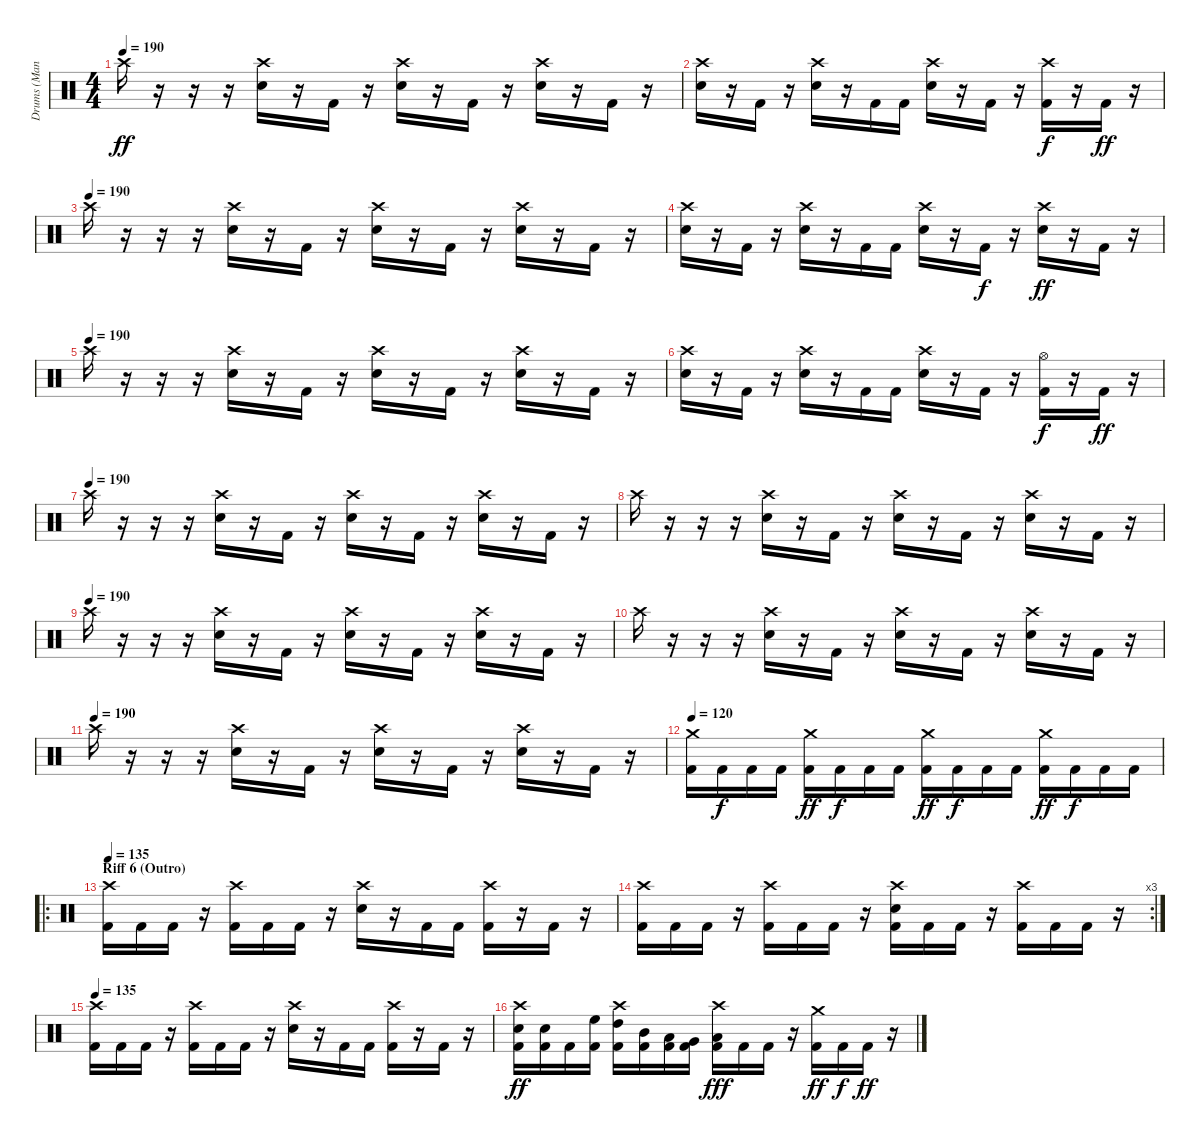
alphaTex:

\track ("Drums (Mancino)" "Drums (Man") {instrument percussion}
\staff {score}
\articulation defaults
\ts (4 4)
\tempo 190
\clef neutral
\ks c "Crash high (hit)".16{dy ff}
r.16 r.16 r.16 ("Crash high (hit)" "Electric Snare (hit)").16 r.16 "Kick (hit) 2".16 r.16 ("Crash high (hit)" "Electric Snare (hit)").16 r.16 "Kick (hit) 2".16 r.16 ("Crash high (hit)" "Electric Snare (hit)").16 r.16 "Kick (hit) 2".16 r.16 |
("Crash high (hit)" "Electric Snare (hit)").16 r.16 "Kick (hit) 2".16 r.16 ("Crash high (hit)" "Electric Snare (hit)").16 r.16 "Kick (hit) 2".16 "Kick (hit) 2".16 ("Crash high (hit)" "Electric Snare (hit)").16 r.16 "Kick (hit) 2".16 r.16 ("Crash high (hit)" "Kick (hit) 2").16{dy f} r.16 "Kick (hit) 2".16{dy ff} r.16 |
\tempo (190)
"Crash high (hit)".16 r.16 r.16 r.16 ("Crash high (hit)" "Electric Snare (hit)").16 r.16 "Kick (hit) 2".16 r.16 ("Crash high (hit)" "Electric Snare (hit)").16 r.16 "Kick (hit) 2".16 r.16 ("Crash high (hit)" "Electric Snare (hit)").16 r.16 "Kick (hit) 2".16 r.16 |
("Crash high (hit)" "Electric Snare (hit)").16 r.16 "Kick (hit) 2".16 r.16 ("Crash high (hit)" "Electric Snare (hit)").16 r.16 "Kick (hit) 2".16 "Kick (hit) 2".16 ("Crash high (hit)" "Electric Snare (hit)").16 r.16 "Kick (hit) 2".16{dy f} r.16 ("Crash high (hit)" "Electric Snare (hit)").16{dy ff} r.16 "Kick (hit) 2".16 r.16 |
\tempo (190)
"Crash high (hit)".16 r.16 r.16 r.16 ("Crash high (hit)" "Electric Snare (hit)").16 r.16 "Kick (hit) 2".16 r.16 ("Crash high (hit)" "Electric Snare (hit)").16 r.16 "Kick (hit) 2".16 r.16 ("Crash high (hit)" "Electric Snare (hit)").16 r.16 "Kick (hit) 2".16 r.16 |
("Crash high (hit)" "Electric Snare (hit)").16 r.16 "Kick (hit) 2".16 r.16 ("Crash high (hit)" "Electric Snare (hit)").16 r.16 "Kick (hit) 2".16 "Kick (hit) 2".16 ("Crash high (hit)" "Electric Snare (hit)").16 r.16 "Kick (hit) 2".16 r.16 ("Hi-Hat (open)" "Kick (hit) 2").16{dy f} r.16 "Kick (hit) 2".16{dy ff} r.16 |
\tempo (190)
"Crash high (hit)".16 r.16 r.16 r.16 ("Crash high (hit)" "Electric Snare (hit)").16 r.16 "Kick (hit) 2".16 r.16 ("Crash high (hit)" "Electric Snare (hit)").16 r.16 "Kick (hit) 2".16 r.16 ("Crash high (hit)" "Electric Snare (hit)").16 r.16 "Kick (hit) 2".16 r.16 |
"Crash high (hit)".16 r.16 r.16 r.16 ("Crash high (hit)" "Electric Snare (hit)").16 r.16 "Kick (hit) 2".16 r.16 ("Crash high (hit)" "Electric Snare (hit)").16 r.16 "Kick (hit) 2".16 r.16 ("Crash high (hit)" "Electric Snare (hit)").16 r.16 "Kick (hit) 2".16 r.16 |
\tempo (190)
"Crash high (hit)".16 r.16 r.16 r.16 ("Crash high (hit)" "Electric Snare (hit)").16 r.16 "Kick (hit) 2".16 r.16 ("Crash high (hit)" "Electric Snare (hit)").16 r.16 "Kick (hit) 2".16 r.16 ("Crash high (hit)" "Electric Snare (hit)").16 r.16 "Kick (hit) 2".16 r.16 |
"Crash high (hit)".16 r.16 r.16 r.16 ("Crash high (hit)" "Electric Snare (hit)").16 r.16 "Kick (hit) 2".16 r.16 ("Crash high (hit)" "Electric Snare (hit)").16 r.16 "Kick (hit) 2".16 r.16 ("Crash high (hit)" "Electric Snare (hit)").16 r.16 "Kick (hit) 2".16 r.16 |
\tempo (190)
"Crash high (hit)".16 r.16 r.16 r.16 ("Crash high (hit)" "Electric Snare (hit)").16 r.16 "Kick (hit) 2".16 r.16 ("Crash high (hit)" "Electric Snare (hit)").16 r.16 "Kick (hit) 2".16 r.16 ("Crash high (hit)" "Electric Snare (hit)").16 r.16 "Kick (hit) 2".16 r.16 |
\tempo 120
("Crash medium (hit)" "Kick (hit) 2").16 "Kick (hit) 2".16{dy f} "Kick (hit) 2".16 "Kick (hit) 2".16 ("Crash medium (hit)" "Kick (hit) 2").16{dy ff} "Kick (hit) 2".16{dy f} "Kick (hit) 2".16 "Kick (hit) 2".16 ("Crash medium (hit)" "Kick (hit) 2").16{dy ff} "Kick (hit) 2".16{dy f} "Kick (hit) 2".16 "Kick (hit) 2".16 ("Crash medium (hit)" "Kick (hit) 2").16{dy ff} "Kick (hit) 2".16{dy f} "Kick (hit) 2".16 "Kick (hit) 2".16 |
\ro
\section ("" "Riff 6 (Outro)")
\tempo 135
("Crash high (hit)" "Kick (hit) 2").16 "Kick (hit) 2".16 "Kick (hit) 2".16 r.16 ("Crash high (hit)" "Kick (hit) 2").16 "Kick (hit) 2".16 "Kick (hit) 2".16 r.16 ("Crash high (hit)" "Electric Snare (hit)").16 r.16 "Kick (hit) 2".16 "Kick (hit) 2".16 ("Crash high (hit)" "Kick (hit) 2").16 r.16 "Kick (hit) 2".16 r.16 |
\rc 3
("Crash high (hit)" "Kick (hit) 2").16 "Kick (hit) 2".16 "Kick (hit) 2".16 r.16 ("Crash high (hit)" "Kick (hit) 2").16 "Kick (hit) 2".16 "Kick (hit) 2".16 r.16 ("Crash high (hit)" "Electric Snare (hit)" "Kick (hit) 2").16 "Kick (hit) 2".16 "Kick (hit) 2".16 r.16 ("Crash high (hit)" "Kick (hit) 2").16 "Kick (hit) 2".16 "Kick (hit) 2".16 r.16 |
\tempo 135
("Crash high (hit)" "Kick (hit) 2").16 "Kick (hit) 2".16 "Kick (hit) 2".16 r.16 ("Crash high (hit)" "Kick (hit) 2").16 "Kick (hit) 2".16 "Kick (hit) 2".16 r.16 ("Crash high (hit)" "Electric Snare (hit)").16 r.16 "Kick (hit) 2".16 "Kick (hit) 2".16 ("Crash high (hit)" "Kick (hit) 2").16 r.16 "Kick (hit) 2".16 r.16 |
("Crash high (hit)" "Electric Snare (hit)" "Kick (hit) 2").16{dy ff} ("Electric Snare (hit)" "Kick (hit) 2").16 "Kick (hit) 2".16 ("High Floor Tom (hit)" "Kick (hit) 2").16 ("Crash high (hit)" "High Tom (hit)" "Kick (hit) 2").16 ("Mid Tom (hit)" "Kick (hit) 2").16 ("Low Tom (hit)" "Kick (hit) 2").16 ("Very Low Tom (hit)" "Kick (hit) 2").16 ("Crash high (hit)" "Low Floor Tom (hit)" "Kick (hit) 2").16{dy fff} "Kick (hit) 2".16 "Kick (hit) 2".16 r.16 ("Crash medium (hit)" "Kick (hit) 2").16{dy ff} "Kick (hit) 2".16{dy f} "Kick (hit) 2".16{dy ff} r.16
